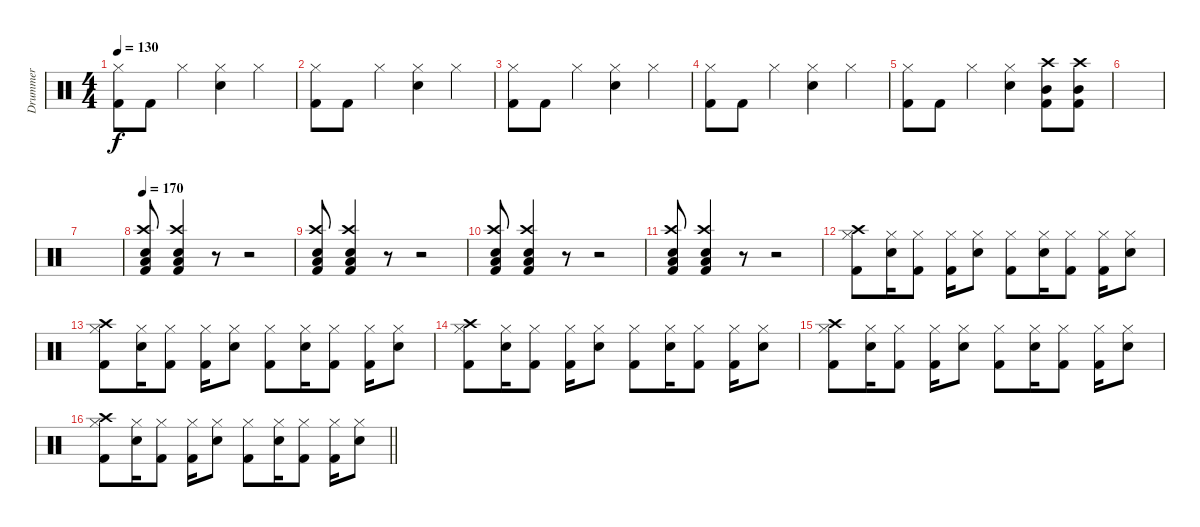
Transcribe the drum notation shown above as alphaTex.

\track ("Drummer" "Drummer") {instrument percussion}
\staff {score}
\articulation defaults
\ts (4 4)
\tempo 130
\clef neutral
\ks c
("Kick (hit) 2" "Hi-Hat (closed)").8{dy f} "Kick (hit) 2".8 "Hi-Hat (closed)".4 ("Electric Snare (hit)" "Hi-Hat (closed)").4 "Hi-Hat (closed)".4 |
("Kick (hit) 2" "Hi-Hat (closed)").8 "Kick (hit) 2".8 "Hi-Hat (closed)".4 ("Electric Snare (hit)" "Hi-Hat (closed)").4 "Hi-Hat (closed)".4 |
("Kick (hit) 2" "Hi-Hat (closed)").8 "Kick (hit) 2".8 "Hi-Hat (closed)".4 ("Electric Snare (hit)" "Hi-Hat (closed)").4 "Hi-Hat (closed)".4 |
("Kick (hit) 2" "Hi-Hat (closed)").8 "Kick (hit) 2".8 "Hi-Hat (closed)".4 ("Electric Snare (hit)" "Hi-Hat (closed)").4 "Hi-Hat (closed)".4 |
("Kick (hit) 2" "Hi-Hat (closed)").8 "Kick (hit) 2".8 "Hi-Hat (closed)".4 ("Electric Snare (hit)" "Hi-Hat (closed)").4 ("Kick (hit) 2" "Mid Tom (hit)" "Crash high (hit)").8 ("Kick (hit) 2" "Mid Tom (hit)" "Crash high (hit)").8 |
|
|
\tempo 170
("Kick (hit) 2" "Low Tom (hit)" "Snare (hit) 2" "Crash high (hit)").8 ("Kick (hit) 2" "Low Tom (hit)" "Snare (hit) 2" "Crash high (hit)").4 r.8 r.2 |
("Kick (hit) 2" "Low Tom (hit)" "Snare (hit) 2" "Crash high (hit)").8 ("Kick (hit) 2" "Low Tom (hit)" "Snare (hit) 2" "Crash high (hit)").4 r.8 r.2 |
("Kick (hit) 2" "Low Tom (hit)" "Snare (hit) 2" "Crash high (hit)").8 ("Kick (hit) 2" "Low Tom (hit)" "Snare (hit) 2" "Crash high (hit)").4 r.8 r.2 |
("Kick (hit) 2" "Low Tom (hit)" "Snare (hit) 2" "Crash high (hit)").8 ("Kick (hit) 2" "Low Tom (hit)" "Snare (hit) 2" "Crash high (hit)").4 r.8 r.2 |
("Kick (hit) 2" "Hi-Hat (closed)" "Crash high (hit)").8 ("Electric Snare (hit)" "Hi-Hat (closed)").16 ("Kick (hit) 2" "Hi-Hat (closed)").8 ("Kick (hit) 2" "Hi-Hat (closed)").16 ("Electric Snare (hit)" "Hi-Hat (closed)").8 ("Kick (hit) 2" "Hi-Hat (closed)").8 ("Electric Snare (hit)" "Hi-Hat (closed)").16 ("Kick (hit) 2" "Hi-Hat (closed)").8 ("Kick (hit) 2" "Hi-Hat (closed)").16 ("Electric Snare (hit)" "Hi-Hat (closed)").8 |
("Kick (hit) 2" "Hi-Hat (closed)" "Crash high (hit)").8 ("Electric Snare (hit)" "Hi-Hat (closed)").16 ("Kick (hit) 2" "Hi-Hat (closed)").8 ("Kick (hit) 2" "Hi-Hat (closed)").16 ("Electric Snare (hit)" "Hi-Hat (closed)").8 ("Kick (hit) 2" "Hi-Hat (closed)").8 ("Electric Snare (hit)" "Hi-Hat (closed)").16 ("Kick (hit) 2" "Hi-Hat (closed)").8 ("Kick (hit) 2" "Hi-Hat (closed)").16 ("Electric Snare (hit)" "Hi-Hat (closed)").8 |
("Kick (hit) 2" "Hi-Hat (closed)" "Crash high (hit)").8 ("Electric Snare (hit)" "Hi-Hat (closed)").16 ("Kick (hit) 2" "Hi-Hat (closed)").8 ("Kick (hit) 2" "Hi-Hat (closed)").16 ("Electric Snare (hit)" "Hi-Hat (closed)").8 ("Kick (hit) 2" "Hi-Hat (closed)").8 ("Electric Snare (hit)" "Hi-Hat (closed)").16 ("Kick (hit) 2" "Hi-Hat (closed)").8 ("Kick (hit) 2" "Hi-Hat (closed)").16 ("Electric Snare (hit)" "Hi-Hat (closed)").8 |
("Kick (hit) 2" "Hi-Hat (closed)" "Crash high (hit)").8 ("Electric Snare (hit)" "Hi-Hat (closed)").16 ("Kick (hit) 2" "Hi-Hat (closed)").8 ("Kick (hit) 2" "Hi-Hat (closed)").16 ("Electric Snare (hit)" "Hi-Hat (closed)").8 ("Kick (hit) 2" "Hi-Hat (closed)").8 ("Electric Snare (hit)" "Hi-Hat (closed)").16 ("Kick (hit) 2" "Hi-Hat (closed)").8 ("Kick (hit) 2" "Hi-Hat (closed)").16 ("Electric Snare (hit)" "Hi-Hat (closed)").8 |
\barLineRight lightlight
("Kick (hit) 2" "Hi-Hat (closed)" "Crash high (hit)").8 ("Electric Snare (hit)" "Hi-Hat (closed)").16 ("Kick (hit) 2" "Hi-Hat (closed)").8 ("Kick (hit) 2" "Hi-Hat (closed)").16 ("Electric Snare (hit)" "Hi-Hat (closed)").8 ("Kick (hit) 2" "Hi-Hat (closed)").8 ("Electric Snare (hit)" "Hi-Hat (closed)").16 ("Kick (hit) 2" "Hi-Hat (closed)").8 ("Kick (hit) 2" "Hi-Hat (closed)").16 ("Electric Snare (hit)" "Hi-Hat (closed)").8
